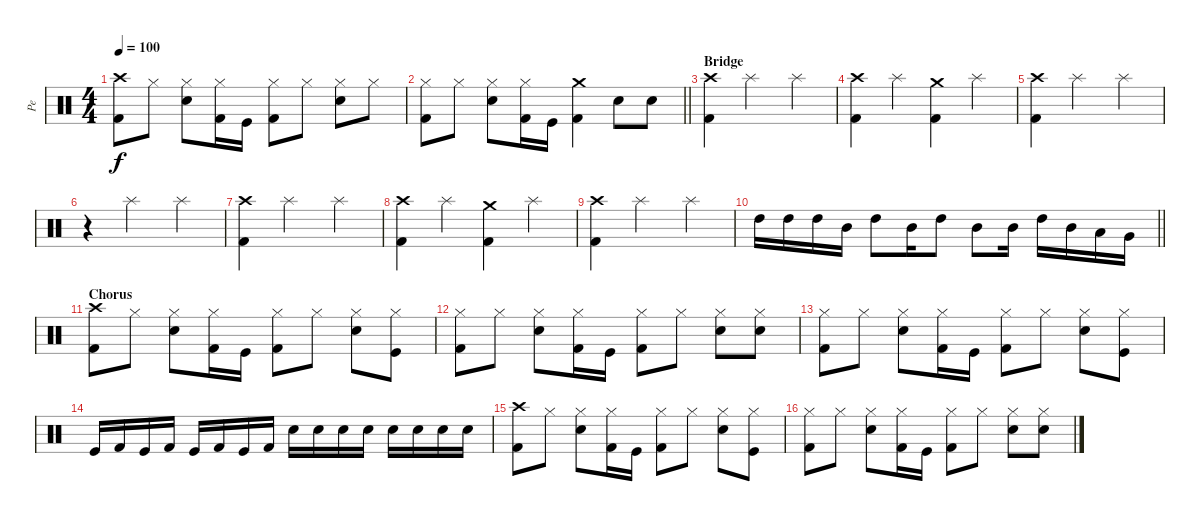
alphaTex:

\track ("Pe" "Pe") {instrument percussion}
\staff {score}
\articulation defaults
\ts (4 4)
\tempo 100
\clef neutral
\ks c
("Kick (hit) 2" "Crash high (hit)").8{dy f} "Hi-Hat (closed)".8 ("Electric Snare (hit)" "Hi-Hat (closed)").8 ("Kick (hit) 2" "Hi-Hat (closed)").16 "Kick (hit)".16 ("Kick (hit) 2" "Hi-Hat (closed)").8 "Hi-Hat (closed)".8 ("Electric Snare (hit)" "Hi-Hat (closed)").8 "Hi-Hat (closed)".8 |
\barLineRight lightlight
("Kick (hit) 2" "Hi-Hat (closed)").8 "Hi-Hat (closed)".8 ("Electric Snare (hit)" "Hi-Hat (closed)").8 ("Kick (hit) 2" "Hi-Hat (closed)").16 "Kick (hit)".16 ("Kick (hit) 2" "Crash medium (hit)").4 "Electric Snare (hit)".8 "Electric Snare (hit)".8 |
\section ("" "Bridge")
("Kick (hit) 2" "Crash high (hit)").4 "Splash (hit)".2 "Splash (hit)".4 |
("Kick (hit) 2" "Crash high (hit)").4 "Splash (hit)".4 ("Kick (hit) 2" "Crash medium (hit)").4 "Splash (hit)".4 |
("Kick (hit) 2" "Crash high (hit)").4 "Splash (hit)".2 "Splash (hit)".4 |
r.4 "Splash (hit)".2 "Splash (hit)".4 |
("Kick (hit) 2" "Crash high (hit)").4 "Splash (hit)".2 "Splash (hit)".4 |
("Kick (hit) 2" "Crash high (hit)").4 "Splash (hit)".4 ("Kick (hit) 2" "Crash medium (hit)").4 "Splash (hit)".4 |
("Kick (hit) 2" "Crash high (hit)").4 "Splash (hit)".2 "Splash (hit)".4 |
\barLineRight lightlight "High Tom (hit)".16 "High Tom (hit)".16 "High Tom (hit)".16 "Mid Tom (hit)".16 "High Tom (hit)".8 "Mid Tom (hit)".16 "High Tom (hit)".8 "Mid Tom (hit)".8 "Mid Tom (hit)".16 "High Tom (hit)".16 "Mid Tom (hit)".16 "Low Tom (hit)".16 "Very Low Tom (hit)".16
|
\section ("" "Chorus")
("Kick (hit) 2" "Crash high (hit)").8 "Hi-Hat (closed)".8 ("Electric Snare (hit)" "Hi-Hat (closed)").8 ("Kick (hit) 2" "Hi-Hat (closed)").16 "Kick (hit)".16 ("Kick (hit) 2" "Hi-Hat (closed)").8 "Hi-Hat (closed)".8 ("Electric Snare (hit)" "Hi-Hat (closed)").8 ("Kick (hit)" "Hi-Hat (closed)").8 |
("Kick (hit) 2" "Hi-Hat (closed)").8 "Hi-Hat (closed)".8 ("Electric Snare (hit)" "Hi-Hat (closed)").8 ("Kick (hit) 2" "Hi-Hat (closed)").16 "Kick (hit)".16 ("Kick (hit) 2" "Hi-Hat (closed)").8 "Hi-Hat (closed)".8 ("Electric Snare (hit)" "Hi-Hat (closed)").8 ("Electric Snare (hit)" "Hi-Hat (closed)").8 |
("Kick (hit) 2" "Hi-Hat (closed)").8 "Hi-Hat (closed)".8 ("Electric Snare (hit)" "Hi-Hat (closed)").8 ("Kick (hit) 2" "Hi-Hat (closed)").16 "Kick (hit)".16 ("Kick (hit) 2" "Hi-Hat (closed)").8 "Hi-Hat (closed)".8 ("Electric Snare (hit)" "Hi-Hat (closed)").8 ("Kick (hit)" "Hi-Hat (closed)").8 |
"Kick (hit)".16 "Kick (hit) 2".16 "Kick (hit)".16 "Kick (hit) 2".16 "Kick (hit)".16 "Kick (hit) 2".16 "Kick (hit)".16 "Kick (hit) 2".16 "Electric Snare (hit)".16 "Electric Snare (hit)".16 "Electric Snare (hit)".16 "Electric Snare (hit)".16 "Electric Snare (hit)".16 "Electric Snare (hit)".16 "Electric Snare (hit)".16 "Electric Snare (hit)".16 |
("Kick (hit) 2" "Crash high (hit)").8 "Hi-Hat (closed)".8 ("Electric Snare (hit)" "Hi-Hat (closed)").8 ("Kick (hit) 2" "Hi-Hat (closed)").16 "Kick (hit)".16 ("Kick (hit) 2" "Hi-Hat (closed)").8 "Hi-Hat (closed)".8 ("Electric Snare (hit)" "Hi-Hat (closed)").8 ("Kick (hit)" "Hi-Hat (closed)").8 |
("Kick (hit) 2" "Hi-Hat (closed)").8 "Hi-Hat (closed)".8 ("Electric Snare (hit)" "Hi-Hat (closed)").8 ("Kick (hit) 2" "Hi-Hat (closed)").16 "Kick (hit)".16 ("Kick (hit) 2" "Hi-Hat (closed)").8 "Hi-Hat (closed)".8 ("Electric Snare (hit)" "Hi-Hat (closed)").8 ("Electric Snare (hit)" "Hi-Hat (closed)").8
